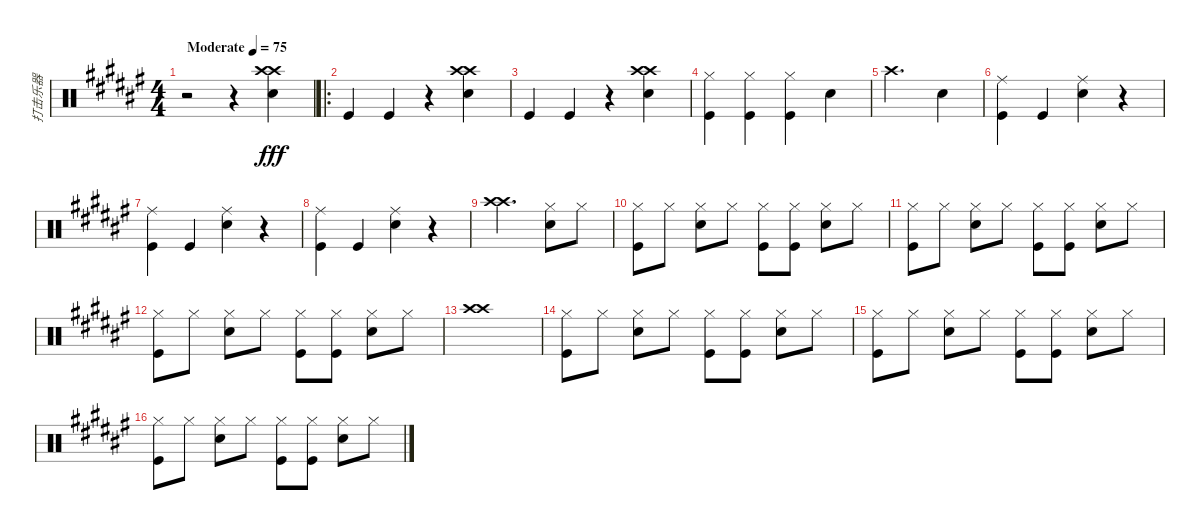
\track ("打击乐器" "打击乐器") {instrument percussion}
\staff {score}
\articulation defaults
\ts (4 4)
\tempo (75 "Moderate")
\clef neutral
\ks f#
r.2{dy fff} r.4 ("Crash high (hit)" "Crash high (hit)" "Snare (hit) 2").4 |
\ro "Kick (hit)".4 "Kick (hit)".4
r.4 ("Crash high (hit)" "Crash high (hit)" "Snare (hit) 2").4 |
"Kick (hit)".4 "Kick (hit)".4 r.4 ("Crash high (hit)" "Crash high (hit)" "Snare (hit) 2").4 |
("Hi-Hat (closed)" "Kick (hit)").4 ("Kick (hit)" "Hi-Hat (closed)").4 ("Kick (hit)" "Hi-Hat (closed)").4 "Snare (hit) 2".4 |
"Crash high (hit)".2{d} "Snare (hit) 2".4 |
("Kick (hit)" "Ride (middle)").4 "Kick (hit)".4 ("Snare (hit) 2" "Ride (middle)").4 r.4 |
("Kick (hit)" "Ride (middle)").4 "Kick (hit)".4 ("Snare (hit) 2" "Ride (middle)").4 r.4 |
("Ride (middle)" "Kick (hit)").4 "Kick (hit)".4 ("Ride (middle)" "Snare (hit) 2").4 r.4 |
("Crash high (hit)" "Crash high (hit)").2{d} ("Snare (hit) 2" "Hi-Hat (closed)").8 "Hi-Hat (closed)".8 |
("Kick (hit)" "Hi-Hat (closed)").8 "Hi-Hat (closed)".8 ("Snare (hit) 2" "Hi-Hat (closed)").8 "Hi-Hat (closed)".8 ("Hi-Hat (closed)" "Kick (hit)").8 ("Kick (hit)" "Hi-Hat (closed)").8 ("Snare (hit) 2" "Hi-Hat (closed)").8 "Hi-Hat (closed)".8 |
("Kick (hit)" "Hi-Hat (closed)").8 "Hi-Hat (closed)".8 ("Snare (hit) 2" "Hi-Hat (closed)").8 "Hi-Hat (closed)".8 ("Hi-Hat (closed)" "Kick (hit)").8 ("Kick (hit)" "Hi-Hat (closed)").8 ("Snare (hit) 2" "Hi-Hat (closed)").8 "Hi-Hat (closed)".8 |
("Kick (hit)" "Hi-Hat (closed)").8 "Hi-Hat (closed)".8 ("Snare (hit) 2" "Hi-Hat (closed)").8 "Hi-Hat (closed)".8 ("Hi-Hat (closed)" "Kick (hit)").8 ("Kick (hit)" "Hi-Hat (closed)").8 ("Snare (hit) 2" "Hi-Hat (closed)").8 "Hi-Hat (closed)".8 |
("Crash high (hit)" "Crash high (hit)").1 |
("Hi-Hat (closed)" "Kick (hit)").8 "Hi-Hat (closed)".8 ("Snare (hit) 2" "Hi-Hat (closed)").8 "Hi-Hat (closed)".8 ("Hi-Hat (closed)" "Kick (hit)").8 ("Kick (hit)" "Hi-Hat (closed)").8 ("Snare (hit) 2" "Hi-Hat (closed)").8 "Hi-Hat (closed)".8 |
("Kick (hit)" "Hi-Hat (closed)").8 "Hi-Hat (closed)".8 ("Snare (hit) 2" "Hi-Hat (closed)").8 "Hi-Hat (closed)".8 ("Hi-Hat (closed)" "Kick (hit)").8 ("Kick (hit)" "Hi-Hat (closed)").8 ("Snare (hit) 2" "Hi-Hat (closed)").8 "Hi-Hat (closed)".8 |
("Kick (hit)" "Hi-Hat (closed)").8 "Hi-Hat (closed)".8 ("Snare (hit) 2" "Hi-Hat (closed)").8 "Hi-Hat (closed)".8 ("Hi-Hat (closed)" "Kick (hit)").8 ("Kick (hit)" "Hi-Hat (closed)").8 ("Snare (hit) 2" "Hi-Hat (closed)").8 "Hi-Hat (closed)".8
